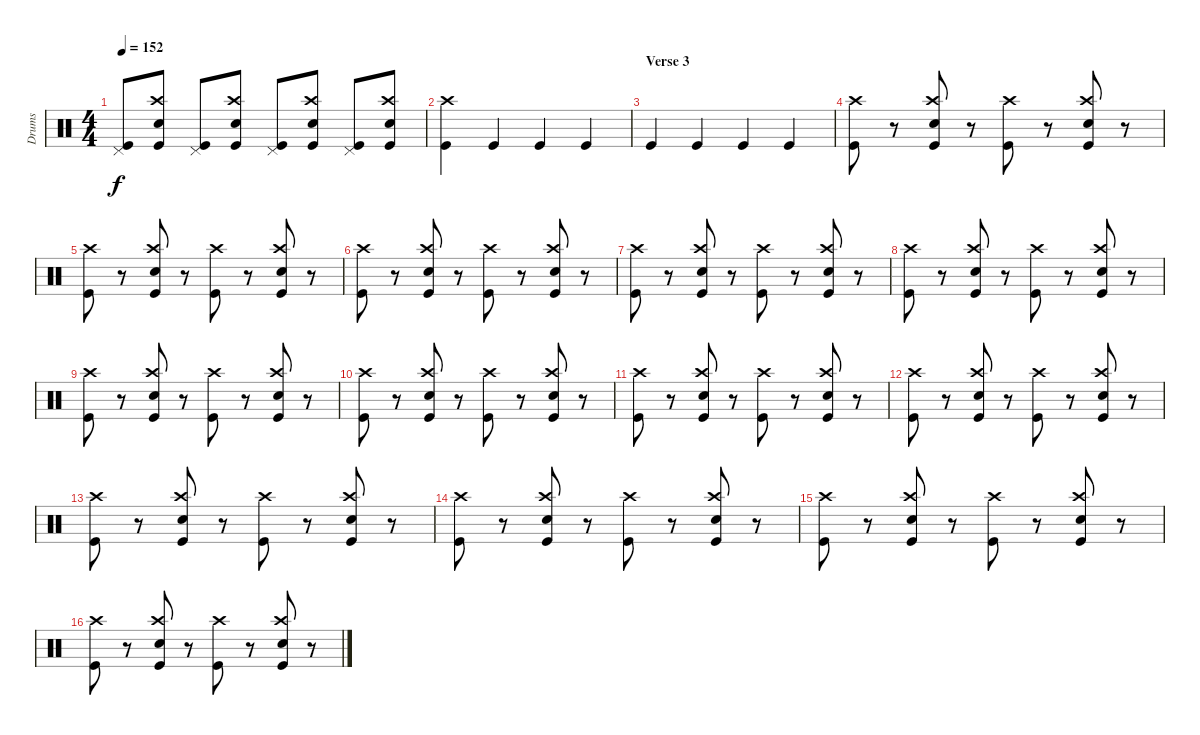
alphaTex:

\track ("Drums" "Drums") {instrument percussion}
\staff {score}
\articulation defaults
\ts (4 4)
\tempo 152
\clef neutral
\ks c
("Pedal Hi-Hat (hit)" "Kick (hit)").8{dy f} ("Crash high (hit)" "Electric Snare (hit)" "Kick (hit)").8 ("Pedal Hi-Hat (hit)" "Kick (hit)").8 ("Crash high (hit)" "Electric Snare (hit)" "Kick (hit)").8 ("Pedal Hi-Hat (hit)" "Kick (hit)").8 ("Crash high (hit)" "Electric Snare (hit)" "Kick (hit)").8 ("Pedal Hi-Hat (hit)" "Kick (hit)").8 ("Crash high (hit)" "Electric Snare (hit)" "Kick (hit)").8 |
("Crash high (hit)" "Kick (hit)").4 "Kick (hit)".4 "Kick (hit)".4 "Kick (hit)".4 |
\section ("" "Verse 3")
"Kick (hit)".4 "Kick (hit)".4 "Kick (hit)".4 "Kick (hit)".4 |
("Crash high (hit)" "Kick (hit)").8 r.8 ("Crash high (hit)" "Electric Snare (hit)" "Kick (hit)").8 r.8 ("Crash high (hit)" "Kick (hit)").8 r.8 ("Crash high (hit)" "Electric Snare (hit)" "Kick (hit)").8 r.8 |
("Crash high (hit)" "Kick (hit)").8 r.8 ("Crash high (hit)" "Electric Snare (hit)" "Kick (hit)").8 r.8 ("Crash high (hit)" "Kick (hit)").8 r.8 ("Crash high (hit)" "Electric Snare (hit)" "Kick (hit)").8 r.8 |
("Crash high (hit)" "Kick (hit)").8 r.8 ("Crash high (hit)" "Electric Snare (hit)" "Kick (hit)").8 r.8 ("Crash high (hit)" "Kick (hit)").8 r.8 ("Crash high (hit)" "Electric Snare (hit)" "Kick (hit)").8 r.8 |
("Crash high (hit)" "Kick (hit)").8 r.8 ("Crash high (hit)" "Electric Snare (hit)" "Kick (hit)").8 r.8 ("Crash high (hit)" "Kick (hit)").8 r.8 ("Crash high (hit)" "Electric Snare (hit)" "Kick (hit)").8 r.8 |
("Crash high (hit)" "Kick (hit)").8 r.8 ("Crash high (hit)" "Electric Snare (hit)" "Kick (hit)").8 r.8 ("Crash high (hit)" "Kick (hit)").8 r.8 ("Crash high (hit)" "Electric Snare (hit)" "Kick (hit)").8 r.8 |
("Crash high (hit)" "Kick (hit)").8 r.8 ("Crash high (hit)" "Electric Snare (hit)" "Kick (hit)").8 r.8 ("Crash high (hit)" "Kick (hit)").8 r.8 ("Crash high (hit)" "Electric Snare (hit)" "Kick (hit)").8 r.8 |
("Crash high (hit)" "Kick (hit)").8 r.8 ("Crash high (hit)" "Electric Snare (hit)" "Kick (hit)").8 r.8 ("Crash high (hit)" "Kick (hit)").8 r.8 ("Crash high (hit)" "Electric Snare (hit)" "Kick (hit)").8 r.8 |
("Crash high (hit)" "Kick (hit)").8 r.8 ("Crash high (hit)" "Electric Snare (hit)" "Kick (hit)").8 r.8 ("Crash high (hit)" "Kick (hit)").8 r.8 ("Crash high (hit)" "Electric Snare (hit)" "Kick (hit)").8 r.8 |
("Crash high (hit)" "Kick (hit)").8 r.8 ("Crash high (hit)" "Electric Snare (hit)" "Kick (hit)").8 r.8 ("Crash high (hit)" "Kick (hit)").8 r.8 ("Crash high (hit)" "Electric Snare (hit)" "Kick (hit)").8 r.8 |
("Crash high (hit)" "Kick (hit)").8 r.8 ("Crash high (hit)" "Electric Snare (hit)" "Kick (hit)").8 r.8 ("Crash high (hit)" "Kick (hit)").8 r.8 ("Crash high (hit)" "Electric Snare (hit)" "Kick (hit)").8 r.8 |
("Crash high (hit)" "Kick (hit)").8 r.8 ("Crash high (hit)" "Electric Snare (hit)" "Kick (hit)").8 r.8 ("Crash high (hit)" "Kick (hit)").8 r.8 ("Crash high (hit)" "Electric Snare (hit)" "Kick (hit)").8 r.8 |
("Crash high (hit)" "Kick (hit)").8 r.8 ("Crash high (hit)" "Electric Snare (hit)" "Kick (hit)").8 r.8 ("Crash high (hit)" "Kick (hit)").8 r.8 ("Crash high (hit)" "Electric Snare (hit)" "Kick (hit)").8 r.8 |
("Crash high (hit)" "Kick (hit)").8 r.8 ("Crash high (hit)" "Electric Snare (hit)" "Kick (hit)").8 r.8 ("Crash high (hit)" "Kick (hit)").8 r.8 ("Crash high (hit)" "Electric Snare (hit)" "Kick (hit)").8 r.8
